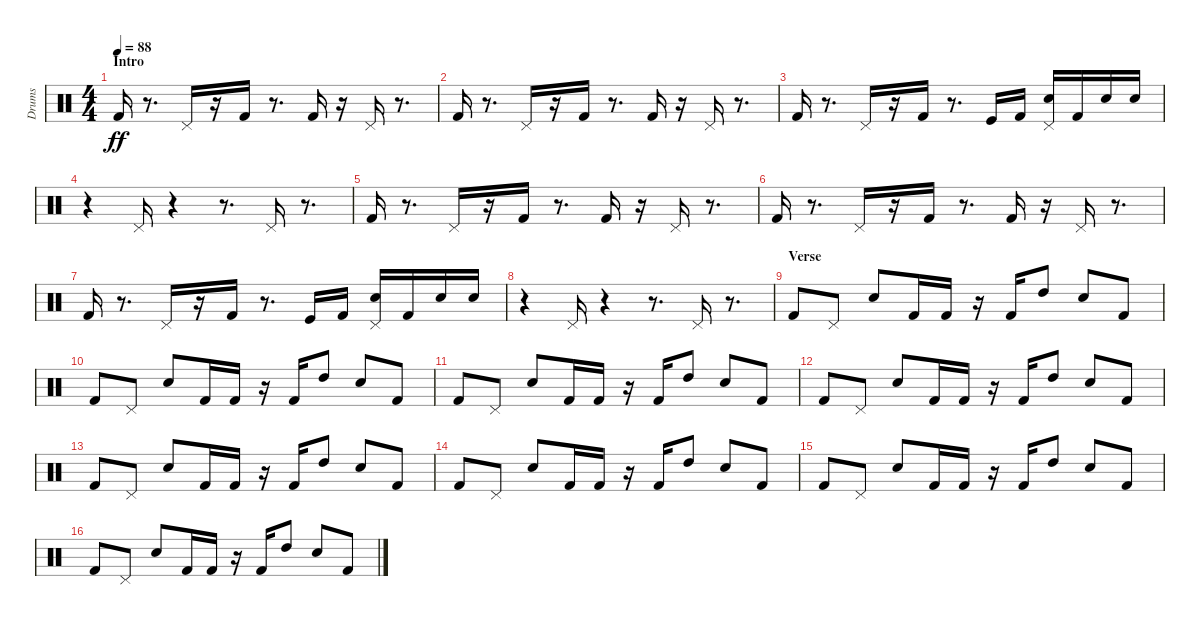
\track ("Drums" "Drums") {solo instrument percussion}
\staff {score}
\articulation defaults
\ts (4 4)
\section ("" "Intro")
\tempo 88
\clef neutral
\ks aminor "Kick (hit) 2".16{dy ff}
r.8{d} "Pedal Hi-Hat (hit)".16 r.16 "Kick (hit) 2".16 r.8{d} "Kick (hit) 2".16 r.16 "Pedal Hi-Hat (hit)".16 r.8{d} |
"Kick (hit) 2".16 r.8{d} "Pedal Hi-Hat (hit)".16 r.16 "Kick (hit) 2".16 r.8{d} "Kick (hit) 2".16 r.16 "Pedal Hi-Hat (hit)".16 r.8{d} |
"Kick (hit) 2".16 r.8{d} "Pedal Hi-Hat (hit)".16 r.16 "Kick (hit) 2".16 r.8{d} "Kick (hit)".16 "Kick (hit) 2".16 ("Electric Snare (hit)" "Pedal Hi-Hat (hit)").16 "Kick (hit) 2".16 "Electric Snare (hit)".16 "Electric Snare (hit)".16 |
r.4 "Pedal Hi-Hat (hit)".16 r.4 r.8{d} "Pedal Hi-Hat (hit)".16 r.8{d} |
"Kick (hit) 2".16 r.8{d} "Pedal Hi-Hat (hit)".16 r.16 "Kick (hit) 2".16 r.8{d} "Kick (hit) 2".16 r.16 "Pedal Hi-Hat (hit)".16 r.8{d} |
"Kick (hit) 2".16 r.8{d} "Pedal Hi-Hat (hit)".16 r.16 "Kick (hit) 2".16 r.8{d} "Kick (hit) 2".16 r.16 "Pedal Hi-Hat (hit)".16 r.8{d} |
"Kick (hit) 2".16 r.8{d} "Pedal Hi-Hat (hit)".16 r.16 "Kick (hit) 2".16 r.8{d} "Kick (hit)".16 "Kick (hit) 2".16 ("Electric Snare (hit)" "Pedal Hi-Hat (hit)").16 "Kick (hit) 2".16 "Electric Snare (hit)".16 "Electric Snare (hit)".16 |
r.4 "Pedal Hi-Hat (hit)".16 r.4 r.8{d} "Pedal Hi-Hat (hit)".16 r.8{d} |
\section ("" "Verse")
"Kick (hit) 2".8 "Pedal Hi-Hat (hit)".8 "Snare (hit) 2".8 "Kick (hit) 2".16 "Kick (hit) 2".16 r.16 "Kick (hit) 2".16 "High Tom (hit)".8 "Snare (hit) 2".8 "Kick (hit) 2".8 |
"Kick (hit) 2".8 "Pedal Hi-Hat (hit)".8 "Snare (hit) 2".8 "Kick (hit) 2".16 "Kick (hit) 2".16 r.16 "Kick (hit) 2".16 "High Tom (hit)".8 "Snare (hit) 2".8 "Kick (hit) 2".8 |
"Kick (hit) 2".8 "Pedal Hi-Hat (hit)".8 "Snare (hit) 2".8 "Kick (hit) 2".16 "Kick (hit) 2".16 r.16 "Kick (hit) 2".16 "High Tom (hit)".8 "Snare (hit) 2".8 "Kick (hit) 2".8 |
"Kick (hit) 2".8 "Pedal Hi-Hat (hit)".8 "Snare (hit) 2".8 "Kick (hit) 2".16 "Kick (hit) 2".16 r.16 "Kick (hit) 2".16 "High Tom (hit)".8 "Snare (hit) 2".8 "Kick (hit) 2".8 |
"Kick (hit) 2".8 "Pedal Hi-Hat (hit)".8 "Snare (hit) 2".8 "Kick (hit) 2".16 "Kick (hit) 2".16 r.16 "Kick (hit) 2".16 "High Tom (hit)".8 "Snare (hit) 2".8 "Kick (hit) 2".8 |
"Kick (hit) 2".8 "Pedal Hi-Hat (hit)".8 "Snare (hit) 2".8 "Kick (hit) 2".16 "Kick (hit) 2".16 r.16 "Kick (hit) 2".16 "High Tom (hit)".8 "Snare (hit) 2".8 "Kick (hit) 2".8 |
"Kick (hit) 2".8 "Pedal Hi-Hat (hit)".8 "Snare (hit) 2".8 "Kick (hit) 2".16 "Kick (hit) 2".16 r.16 "Kick (hit) 2".16 "High Tom (hit)".8 "Snare (hit) 2".8 "Kick (hit) 2".8 |
"Kick (hit) 2".8 "Pedal Hi-Hat (hit)".8 "Snare (hit) 2".8 "Kick (hit) 2".16 "Kick (hit) 2".16 r.16 "Kick (hit) 2".16 "High Tom (hit)".8 "Snare (hit) 2".8 "Kick (hit) 2".8
